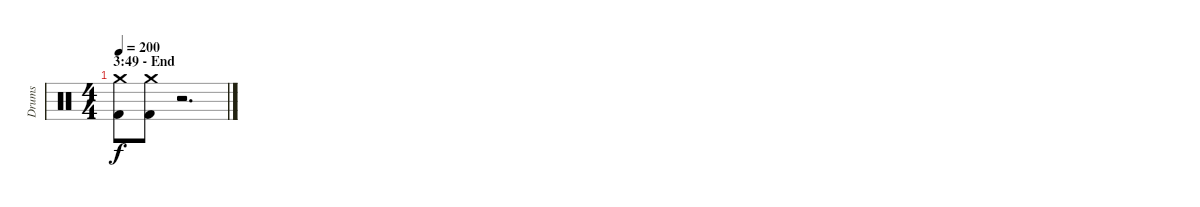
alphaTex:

\track ("Drums" "Drums") {instrument percussion}
\staff {score}
\articulation defaults
\ts (4 4)
\section ("" "3:49 - End")
\tempo 200
\clef neutral
\ks c
("Crash medium (hit)" "Kick (hit) 2").8{dy f} ("Crash medium (hit)" "Kick (hit) 2").8 r.2{d}
